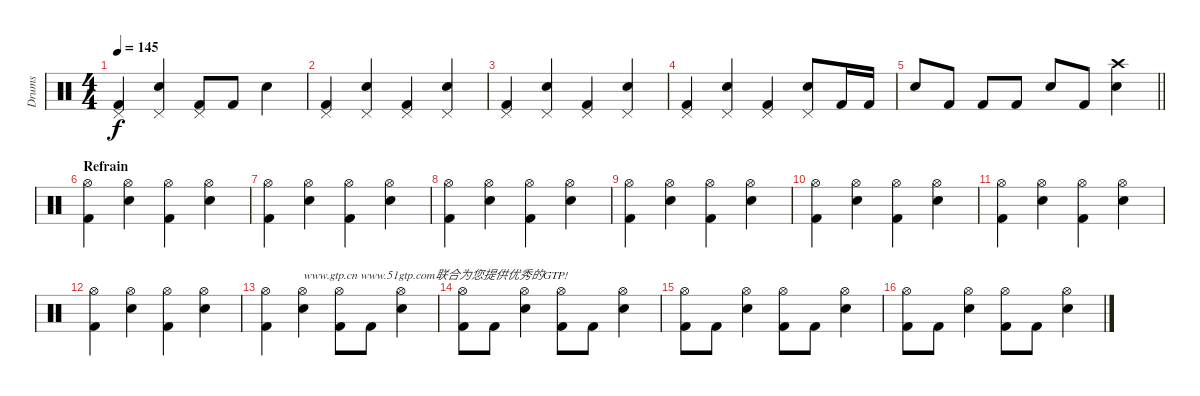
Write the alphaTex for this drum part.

\track ("Drums" "Drums") {instrument percussion}
\staff {score}
\articulation defaults
\ts (4 4)
\tempo 145
\clef neutral
\ks c
("Kick (hit) 2" "Pedal Hi-Hat (hit)").4{dy f} ("Electric Snare (hit)" "Pedal Hi-Hat (hit)").4 ("Kick (hit) 2" "Pedal Hi-Hat (hit)").8 "Kick (hit) 2".8 "Electric Snare (hit)".4 |
("Kick (hit) 2" "Pedal Hi-Hat (hit)").4 ("Electric Snare (hit)" "Pedal Hi-Hat (hit)").4 ("Kick (hit) 2" "Pedal Hi-Hat (hit)").4 ("Electric Snare (hit)" "Pedal Hi-Hat (hit)").4 |
("Kick (hit) 2" "Pedal Hi-Hat (hit)").4 ("Electric Snare (hit)" "Pedal Hi-Hat (hit)").4 ("Kick (hit) 2" "Pedal Hi-Hat (hit)").4 ("Electric Snare (hit)" "Pedal Hi-Hat (hit)").4 |
("Kick (hit) 2" "Pedal Hi-Hat (hit)").4 ("Electric Snare (hit)" "Pedal Hi-Hat (hit)").4 ("Kick (hit) 2" "Pedal Hi-Hat (hit)").4 ("Electric Snare (hit)" "Pedal Hi-Hat (hit)").8 "Kick (hit) 2".16 "Kick (hit) 2".16 |
\barLineRight lightlight "Electric Snare (hit)".8 "Kick (hit) 2".8 "Kick (hit) 2".8 "Kick (hit) 2".8 "Electric Snare (hit)".8 "Kick (hit) 2".8
("Electric Snare (hit)" "Crash high (hit)").4 |
\section ("" "Refrain")
("Kick (hit) 2" "Hi-Hat (open)").4 ("Electric Snare (hit)" "Hi-Hat (open)").4 ("Kick (hit) 2" "Hi-Hat (open)").4 ("Electric Snare (hit)" "Hi-Hat (open)").4 |
("Kick (hit) 2" "Hi-Hat (open)").4 ("Electric Snare (hit)" "Hi-Hat (open)").4 ("Kick (hit) 2" "Hi-Hat (open)").4 ("Electric Snare (hit)" "Hi-Hat (open)").4 |
("Kick (hit) 2" "Hi-Hat (open)").4 ("Electric Snare (hit)" "Hi-Hat (open)").4 ("Kick (hit) 2" "Hi-Hat (open)").4 ("Electric Snare (hit)" "Hi-Hat (open)").4 |
("Kick (hit) 2" "Hi-Hat (open)").4 ("Electric Snare (hit)" "Hi-Hat (open)").4 ("Kick (hit) 2" "Hi-Hat (open)").4 ("Electric Snare (hit)" "Hi-Hat (open)").4 |
("Kick (hit) 2" "Hi-Hat (open)").4 ("Electric Snare (hit)" "Hi-Hat (open)").4 ("Kick (hit) 2" "Hi-Hat (open)").4 ("Electric Snare (hit)" "Hi-Hat (open)").4 |
("Kick (hit) 2" "Hi-Hat (open)").4 ("Electric Snare (hit)" "Hi-Hat (open)").4 ("Kick (hit) 2" "Hi-Hat (open)").4 ("Electric Snare (hit)" "Hi-Hat (open)").4 |
("Kick (hit) 2" "Hi-Hat (open)").4 ("Electric Snare (hit)" "Hi-Hat (open)").4 ("Kick (hit) 2" "Hi-Hat (open)").4 ("Electric Snare (hit)" "Hi-Hat (open)").4 |
("Kick (hit) 2" "Hi-Hat (open)").4 ("Electric Snare (hit)" "Hi-Hat (open)").4{txt "www.gtp.cn www.51gtp.com联合为您提供优秀的GTP!"} ("Kick (hit) 2" "Hi-Hat (open)").8 "Kick (hit) 2".8 ("Electric Snare (hit)" "Hi-Hat (open)").4 |
("Kick (hit) 2" "Hi-Hat (open)").8 "Kick (hit) 2".8 ("Electric Snare (hit)" "Hi-Hat (open)").4 ("Kick (hit) 2" "Hi-Hat (open)").8 "Kick (hit) 2".8 ("Electric Snare (hit)" "Hi-Hat (open)").4 |
("Kick (hit) 2" "Hi-Hat (open)").8 "Kick (hit) 2".8 ("Electric Snare (hit)" "Hi-Hat (open)").4 ("Kick (hit) 2" "Hi-Hat (open)").8 "Kick (hit) 2".8 ("Electric Snare (hit)" "Hi-Hat (open)").4 |
("Kick (hit) 2" "Hi-Hat (open)").8 "Kick (hit) 2".8 ("Electric Snare (hit)" "Hi-Hat (open)").4 ("Kick (hit) 2" "Hi-Hat (open)").8 "Kick (hit) 2".8 ("Electric Snare (hit)" "Hi-Hat (open)").4
